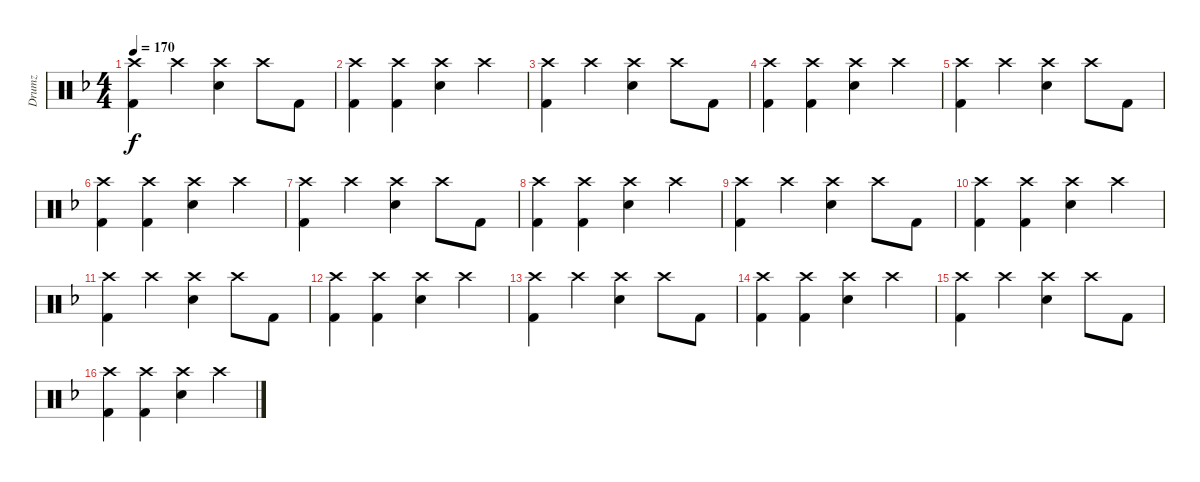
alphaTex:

\track ("Drumz" "Drumz") {instrument percussion}
\staff {score}
\articulation defaults
\ts (4 4)
\tempo 170
\clef neutral
\ks dminor
("Crash high (hit)" "Kick (hit) 2").4{dy f} "Crash high (hit)".4 ("Crash high (hit)" "Snare (hit) 2").4 "Crash high (hit)".8 "Kick (hit) 2".8 |
("Crash high (hit)" "Kick (hit) 2").4 ("Crash high (hit)" "Kick (hit) 2").4 ("Crash high (hit)" "Snare (hit) 2").4 "Crash high (hit)".4 |
("Crash high (hit)" "Kick (hit) 2").4 "Crash high (hit)".4 ("Crash high (hit)" "Snare (hit) 2").4 "Crash high (hit)".8 "Kick (hit) 2".8 |
("Crash high (hit)" "Kick (hit) 2").4 ("Crash high (hit)" "Kick (hit) 2").4 ("Crash high (hit)" "Snare (hit) 2").4 "Crash high (hit)".4 |
("Crash high (hit)" "Kick (hit) 2").4 "Crash high (hit)".4 ("Crash high (hit)" "Snare (hit) 2").4 "Crash high (hit)".8 "Kick (hit) 2".8 |
("Crash high (hit)" "Kick (hit) 2").4 ("Crash high (hit)" "Kick (hit) 2").4 ("Crash high (hit)" "Snare (hit) 2").4 "Crash high (hit)".4 |
("Crash high (hit)" "Kick (hit) 2").4 "Crash high (hit)".4 ("Crash high (hit)" "Snare (hit) 2").4 "Crash high (hit)".8 "Kick (hit) 2".8 |
("Crash high (hit)" "Kick (hit) 2").4 ("Crash high (hit)" "Kick (hit) 2").4 ("Crash high (hit)" "Snare (hit) 2").4 "Crash high (hit)".4 |
("Crash high (hit)" "Kick (hit) 2").4 "Crash high (hit)".4 ("Crash high (hit)" "Snare (hit) 2").4 "Crash high (hit)".8 "Kick (hit) 2".8 |
("Crash high (hit)" "Kick (hit) 2").4 ("Crash high (hit)" "Kick (hit) 2").4 ("Crash high (hit)" "Snare (hit) 2").4 "Crash high (hit)".4 |
("Crash high (hit)" "Kick (hit) 2").4 "Crash high (hit)".4 ("Crash high (hit)" "Snare (hit) 2").4 "Crash high (hit)".8 "Kick (hit) 2".8 |
("Crash high (hit)" "Kick (hit) 2").4 ("Crash high (hit)" "Kick (hit) 2").4 ("Crash high (hit)" "Snare (hit) 2").4 "Crash high (hit)".4 |
("Crash high (hit)" "Kick (hit) 2").4 "Crash high (hit)".4 ("Crash high (hit)" "Snare (hit) 2").4 "Crash high (hit)".8 "Kick (hit) 2".8 |
("Crash high (hit)" "Kick (hit) 2").4 ("Crash high (hit)" "Kick (hit) 2").4 ("Crash high (hit)" "Snare (hit) 2").4 "Crash high (hit)".4 |
("Crash high (hit)" "Kick (hit) 2").4 "Crash high (hit)".4 ("Crash high (hit)" "Snare (hit) 2").4 "Crash high (hit)".8 "Kick (hit) 2".8 |
("Crash high (hit)" "Kick (hit) 2").4 ("Crash high (hit)" "Kick (hit) 2").4 ("Crash high (hit)" "Snare (hit) 2").4 "Crash high (hit)".4
